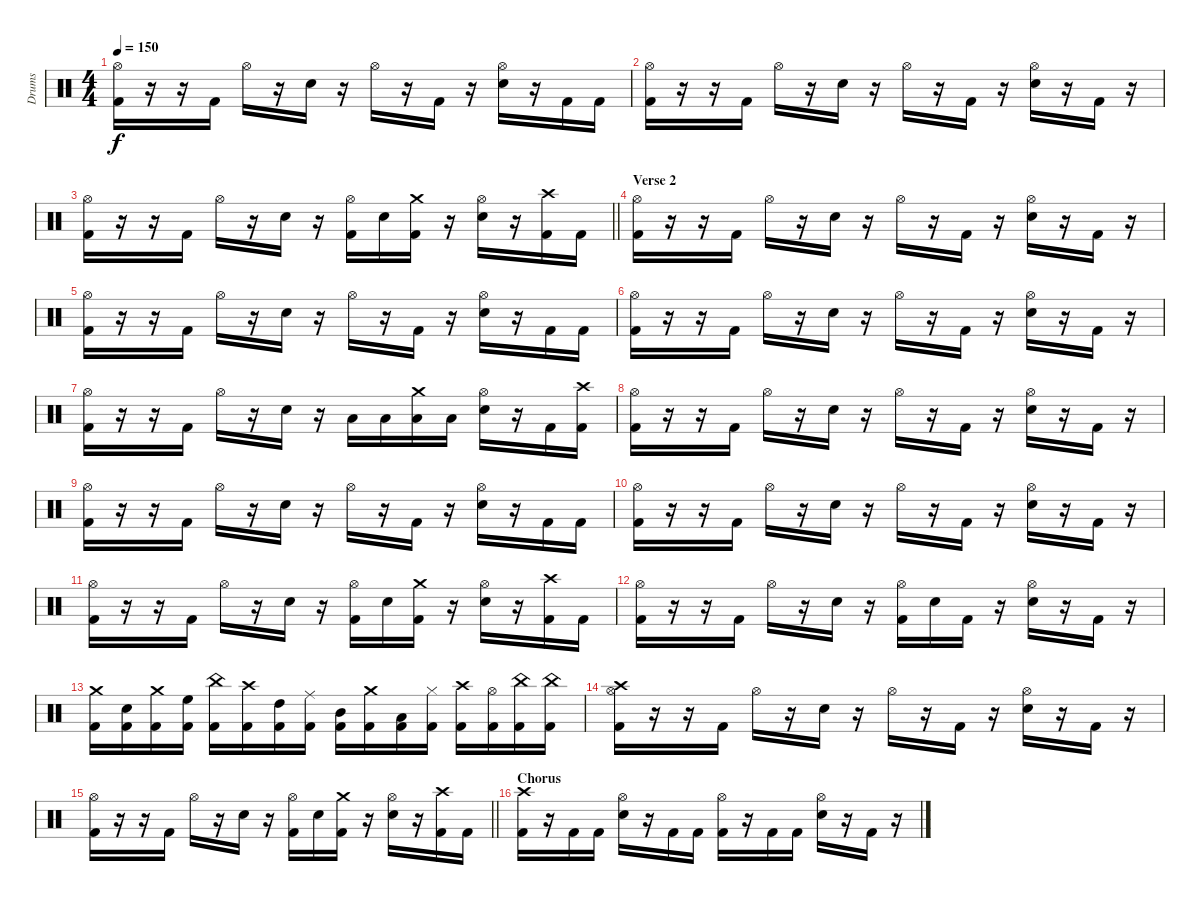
\track ("Drums" "Drums") {instrument percussion}
\staff {score}
\articulation defaults
\ts (4 4)
\tempo 150
\clef neutral
\ks c
("Hi-Hat (open)" "Kick (hit) 2").16{dy f} r.16 r.16 "Kick (hit) 2".16 "Hi-Hat (open)".16 r.16 "Snare (hit) 2".16 r.16 "Hi-Hat (open)".16 r.16 "Kick (hit) 2".16 r.16 ("Hi-Hat (open)" "Snare (hit) 2").16 r.16 "Kick (hit) 2".16 "Kick (hit) 2".16 |
("Hi-Hat (open)" "Kick (hit) 2").16 r.16 r.16 "Kick (hit) 2".16 "Hi-Hat (open)".16 r.16 "Snare (hit) 2".16 r.16 "Hi-Hat (open)".16 r.16 "Kick (hit) 2".16 r.16 ("Hi-Hat (open)" "Snare (hit) 2").16 r.16 "Kick (hit) 2".16 r.16 |
\barLineRight lightlight
("Hi-Hat (open)" "Kick (hit) 2").16 r.16 r.16 "Kick (hit) 2".16 "Hi-Hat (open)".16 r.16 "Snare (hit) 2".16 r.16 ("Hi-Hat (open)" "Kick (hit) 2").16 "Snare (hit) 2".16 ("Crash medium (hit)" "Kick (hit) 2").16 r.16 ("Hi-Hat (open)" "Snare (hit) 2").16 r.16 ("Crash high (hit)" "Kick (hit) 2").16 "Kick (hit) 2".16 |
\section ("" "Verse 2")
("Hi-Hat (open)" "Kick (hit) 2").16 r.16 r.16 "Kick (hit) 2".16 "Hi-Hat (open)".16 r.16 "Snare (hit) 2".16 r.16 "Hi-Hat (open)".16 r.16 "Kick (hit) 2".16 r.16 ("Hi-Hat (open)" "Snare (hit) 2").16 r.16 "Kick (hit) 2".16 r.16 |
("Hi-Hat (open)" "Kick (hit) 2").16 r.16 r.16 "Kick (hit) 2".16 "Hi-Hat (open)".16 r.16 "Snare (hit) 2".16 r.16 "Hi-Hat (open)".16 r.16 "Kick (hit) 2".16 r.16 ("Hi-Hat (open)" "Snare (hit) 2").16 r.16 "Kick (hit) 2".16 "Kick (hit) 2".16 |
("Hi-Hat (open)" "Kick (hit) 2").16 r.16 r.16 "Kick (hit) 2".16 "Hi-Hat (open)".16 r.16 "Snare (hit) 2".16 r.16 "Hi-Hat (open)".16 r.16 "Kick (hit) 2".16 r.16 ("Hi-Hat (open)" "Snare (hit) 2").16 r.16 "Kick (hit) 2".16 r.16 |
("Hi-Hat (open)" "Kick (hit) 2").16 r.16 r.16 "Kick (hit) 2".16 "Hi-Hat (open)".16 r.16 "Snare (hit) 2".16 r.16 "Low Tom (hit)".16 "Low Tom (hit)".16 ("Crash medium (hit)" "Low Floor Tom (hit)").16 "Low Floor Tom (hit)".16 ("Hi-Hat (open)" "Snare (hit) 2").16 r.16 "Kick (hit) 2".16 ("Crash high (hit)" "Kick (hit) 2").16 |
("Hi-Hat (open)" "Kick (hit) 2").16 r.16 r.16 "Kick (hit) 2".16 "Hi-Hat (open)".16 r.16 "Snare (hit) 2".16 r.16 "Hi-Hat (open)".16 r.16 "Kick (hit) 2".16 r.16 ("Hi-Hat (open)" "Snare (hit) 2").16 r.16 "Kick (hit) 2".16 r.16 |
("Hi-Hat (open)" "Kick (hit) 2").16 r.16 r.16 "Kick (hit) 2".16 "Hi-Hat (open)".16 r.16 "Snare (hit) 2".16 r.16 "Hi-Hat (open)".16 r.16 "Kick (hit) 2".16 r.16 ("Hi-Hat (open)" "Snare (hit) 2").16 r.16 "Kick (hit) 2".16 "Kick (hit) 2".16 |
("Hi-Hat (open)" "Kick (hit) 2").16 r.16 r.16 "Kick (hit) 2".16 "Hi-Hat (open)".16 r.16 "Snare (hit) 2".16 r.16 "Hi-Hat (open)".16 r.16 "Kick (hit) 2".16 r.16 ("Hi-Hat (open)" "Snare (hit) 2").16 r.16 "Kick (hit) 2".16 r.16 |
("Hi-Hat (open)" "Kick (hit) 2").16 r.16 r.16 "Kick (hit) 2".16 "Hi-Hat (open)".16 r.16 "Snare (hit) 2".16 r.16 ("Hi-Hat (open)" "Kick (hit) 2").16 "Snare (hit) 2".16 ("Crash medium (hit)" "Kick (hit) 2").16 r.16 ("Hi-Hat (open)" "Snare (hit) 2").16 r.16 ("Crash high (hit)" "Kick (hit) 2").16 "Kick (hit) 2".16 |
("Hi-Hat (open)" "Kick (hit) 2").16 r.16 r.16 "Kick (hit) 2".16 "Hi-Hat (open)".16 r.16 "Snare (hit) 2".16 r.16 ("Hi-Hat (open)" "Kick (hit) 2").16 "Snare (hit) 2".16 "Kick (hit) 2".16 r.16 ("Hi-Hat (open)" "Snare (hit) 2").16 r.16 "Kick (hit) 2".16 r.16 |
("Crash medium (hit)" "Kick (hit) 2").16 ("Snare (hit) 2" "Kick (hit) 2").16 ("Crash medium (hit)" "Kick (hit) 2").16 ("High Floor Tom (hit)" "Kick (hit) 2").16 ("China (hit)" "Kick (hit) 2").16 ("Crash high (hit)" "Kick (hit) 2").16 ("High Tom (hit)" "Kick (hit) 2").16 ("Ride (middle)" "Kick (hit) 2").16 ("Mid Tom (hit)" "Kick (hit) 2").16 ("Crash medium (hit)" "Kick (hit) 2").16 ("Low Tom (hit)" "Kick (hit) 2").16 ("Hi-Hat (closed)" "Kick (hit) 2").16 ("Crash high (hit)" "Kick (hit) 2").16 ("Hi-Hat (open)" "Kick (hit) 2").16 ("China (hit)" "Kick (hit) 2").16 ("China (hit)" "Kick (hit) 2").16 |
("Hi-Hat (open)" "Crash high (hit)" "Kick (hit) 2").16 r.16 r.16 "Kick (hit) 2".16 "Hi-Hat (open)".16 r.16 "Snare (hit) 2".16 r.16 "Hi-Hat (open)".16 r.16 "Kick (hit) 2".16 r.16 ("Hi-Hat (open)" "Snare (hit) 2").16 r.16 "Kick (hit) 2".16 r.16 |
\barLineRight lightlight
("Hi-Hat (open)" "Kick (hit) 2").16 r.16 r.16 "Kick (hit) 2".16 "Hi-Hat (open)".16 r.16 "Snare (hit) 2".16 r.16 ("Hi-Hat (open)" "Kick (hit) 2").16 "Snare (hit) 2".16 ("Crash medium (hit)" "Kick (hit) 2").16 r.16 ("Hi-Hat (open)" "Snare (hit) 2").16 r.16 ("Crash high (hit)" "Kick (hit) 2").16 "Kick (hit) 2".16 |
\section ("" "Chorus")
("Crash high (hit)" "Kick (hit) 2").16 r.16 "Kick (hit) 2".16 "Kick (hit) 2".16 ("Hi-Hat (open)" "Snare (hit) 2").16 r.16 "Kick (hit) 2".16 "Kick (hit) 2".16 ("Hi-Hat (open)" "Kick (hit) 2").16 r.16 "Kick (hit) 2".16 "Kick (hit) 2".16 ("Hi-Hat (open)" "Snare (hit) 2").16 r.16 "Kick (hit) 2".16 r.16
